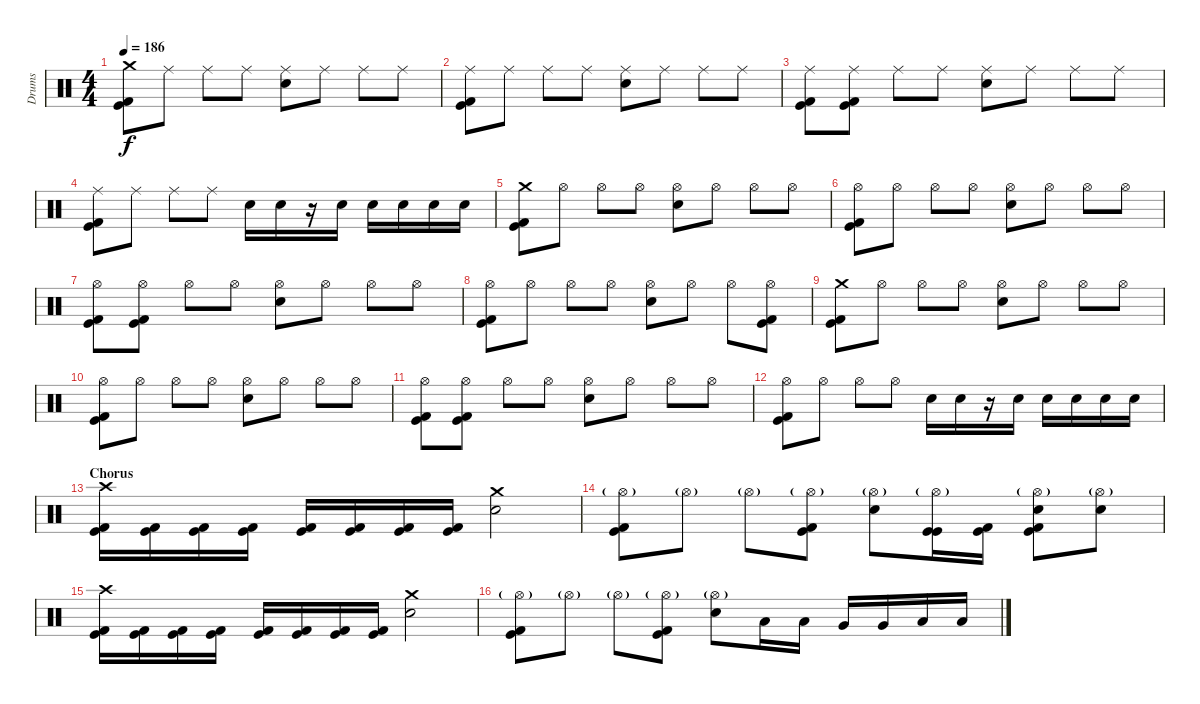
\track ("Drums" "Drums") {instrument percussion}
\staff {score}
\articulation defaults
\ts (4 4)
\tempo 186
\clef neutral
\ks c
("Crash medium (hit)" "Kick (hit)" "Kick (hit) 2").8{dy f} "Ride (middle)".8 "Ride (middle)".8 "Ride (middle)".8 ("Ride (middle)" "Electric Snare (hit)").8 "Ride (middle)".8 "Ride (middle)".8 "Ride (middle)".8 |
("Ride (middle)" "Kick (hit)" "Kick (hit) 2").8 "Ride (middle)".8 "Ride (middle)".8 "Ride (middle)".8 ("Ride (middle)" "Electric Snare (hit)").8 "Ride (middle)".8 "Ride (middle)".8 "Ride (middle)".8 |
("Ride (middle)" "Kick (hit)" "Kick (hit) 2").8 ("Ride (middle)" "Kick (hit)" "Kick (hit) 2").8 "Ride (middle)".8 "Ride (middle)".8 ("Ride (middle)" "Electric Snare (hit)").8 "Ride (middle)".8 "Ride (middle)".8 "Ride (middle)".8 |
("Ride (middle)" "Kick (hit)" "Kick (hit) 2").8 "Ride (middle)".8 "Ride (middle)".8 "Ride (middle)".8 "Electric Snare (hit)".16 "Electric Snare (hit)".16 r.16 "Electric Snare (hit)".16 "Electric Snare (hit)".16 "Electric Snare (hit)".16 "Electric Snare (hit)".16 "Electric Snare (hit)".16 |
("Crash medium (hit)" "Kick (hit)" "Kick (hit) 2").8 "Hi-Hat (open)".8 "Hi-Hat (open)".8 "Hi-Hat (open)".8 ("Hi-Hat (open)" "Electric Snare (hit)").8 "Hi-Hat (open)".8 "Hi-Hat (open)".8 "Hi-Hat (open)".8 |
("Hi-Hat (open)" "Kick (hit)" "Kick (hit) 2").8 "Hi-Hat (open)".8 "Hi-Hat (open)".8 "Hi-Hat (open)".8 ("Hi-Hat (open)" "Electric Snare (hit)").8 "Hi-Hat (open)".8 "Hi-Hat (open)".8 "Hi-Hat (open)".8 |
("Hi-Hat (open)" "Kick (hit)" "Kick (hit) 2").8 ("Hi-Hat (open)" "Kick (hit)" "Kick (hit) 2").8 "Hi-Hat (open)".8 "Hi-Hat (open)".8 ("Hi-Hat (open)" "Electric Snare (hit)").8 "Hi-Hat (open)".8 "Hi-Hat (open)".8 "Hi-Hat (open)".8 |
("Hi-Hat (open)" "Kick (hit)" "Kick (hit) 2").8 "Hi-Hat (open)".8 "Hi-Hat (open)".8 "Hi-Hat (open)".8 ("Hi-Hat (open)" "Electric Snare (hit)").8 "Hi-Hat (open)".8 "Hi-Hat (open)".8 ("Hi-Hat (open)" "Kick (hit)" "Kick (hit) 2").8 |
("Crash medium (hit)" "Kick (hit)" "Kick (hit) 2").8 "Hi-Hat (open)".8 "Hi-Hat (open)".8 "Hi-Hat (open)".8 ("Hi-Hat (open)" "Electric Snare (hit)").8 "Hi-Hat (open)".8 "Hi-Hat (open)".8 "Hi-Hat (open)".8 |
("Hi-Hat (open)" "Kick (hit)" "Kick (hit) 2").8 "Hi-Hat (open)".8 "Hi-Hat (open)".8 "Hi-Hat (open)".8 ("Hi-Hat (open)" "Electric Snare (hit)").8 "Hi-Hat (open)".8 "Hi-Hat (open)".8 "Hi-Hat (open)".8 |
("Hi-Hat (open)" "Kick (hit)" "Kick (hit) 2").8 ("Hi-Hat (open)" "Kick (hit)" "Kick (hit) 2").8 "Hi-Hat (open)".8 "Hi-Hat (open)".8 ("Hi-Hat (open)" "Electric Snare (hit)").8 "Hi-Hat (open)".8 "Hi-Hat (open)".8 "Hi-Hat (open)".8 |
("Hi-Hat (open)" "Kick (hit)" "Kick (hit) 2").8 "Hi-Hat (open)".8 "Hi-Hat (open)".8 "Hi-Hat (open)".8 "Electric Snare (hit)".16 "Electric Snare (hit)".16 r.16 "Electric Snare (hit)".16 "Electric Snare (hit)".16 "Electric Snare (hit)".16 "Electric Snare (hit)".16 "Electric Snare (hit)".16 |
\section ("" "Chorus")
("Crash high (hit)" "Kick (hit)" "Kick (hit) 2").16 ("Kick (hit)" "Kick (hit) 2").16 ("Kick (hit)" "Kick (hit) 2").16 ("Kick (hit)" "Kick (hit) 2").16 ("Kick (hit)" "Kick (hit) 2").16 ("Kick (hit)" "Kick (hit) 2").16 ("Kick (hit)" "Kick (hit) 2").16 ("Kick (hit)" "Kick (hit) 2").16 ("Crash medium (hit)" "Electric Snare (hit)").2 |
("Hi-Hat (open)"{g} "Kick (hit)" "Kick (hit) 2").8 "Hi-Hat (open)"{g}.8 "Hi-Hat (open)"{g}.8 ("Hi-Hat (open)"{g} "Kick (hit)" "Kick (hit) 2").8 ("Hi-Hat (open)"{g} "Electric Snare (hit)").8 ("Hi-Hat (open)"{g} "Kick (hit)" "Kick (hit)").16 ("Kick (hit)" "Kick (hit) 2").16 ("Hi-Hat (open)"{g} "Electric Snare (hit)" "Kick (hit)" "Kick (hit) 2").8 ("Hi-Hat (open)"{g} "Electric Snare (hit)").8 |
("Crash high (hit)" "Kick (hit)" "Kick (hit) 2").16 ("Kick (hit)" "Kick (hit) 2").16 ("Kick (hit)" "Kick (hit) 2").16 ("Kick (hit)" "Kick (hit) 2").16 ("Kick (hit)" "Kick (hit) 2").16 ("Kick (hit)" "Kick (hit) 2").16 ("Kick (hit)" "Kick (hit) 2").16 ("Kick (hit)" "Kick (hit) 2").16 ("Crash medium (hit)" "Electric Snare (hit)").2 |
("Hi-Hat (open)"{g} "Kick (hit)" "Kick (hit) 2").8 "Hi-Hat (open)"{g}.8 "Hi-Hat (open)"{g}.8 ("Hi-Hat (open)"{g} "Kick (hit)" "Kick (hit) 2").8 ("Hi-Hat (open)"{g} "Electric Snare (hit)").8 "Low Tom (hit)".16 "Low Tom (hit)".16 "Very Low Tom (hit)".16 "Very Low Tom (hit)".16 "Low Floor Tom (hit)".16 "Low Floor Tom (hit)".16
